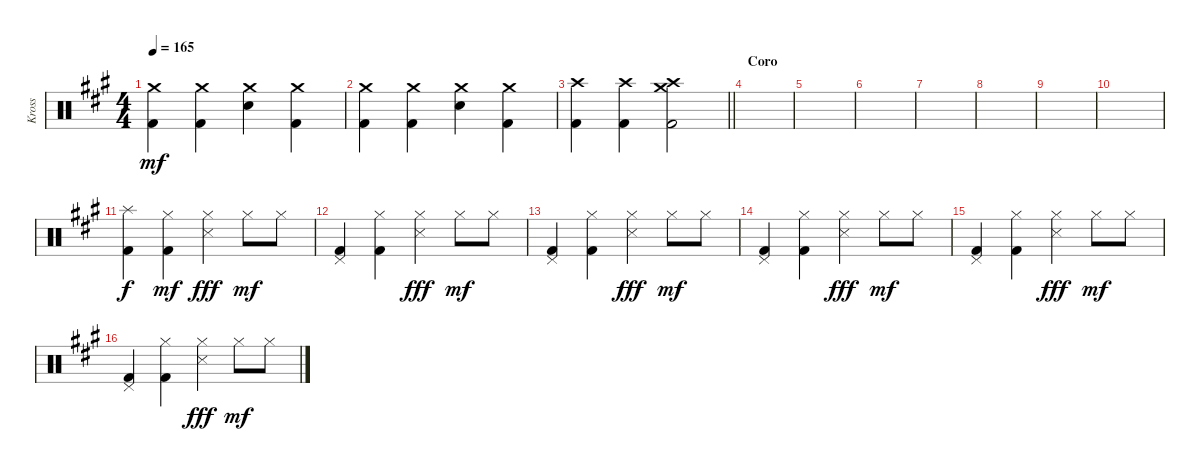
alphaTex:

\track ("Kross" "Kross") {instrument percussion}
\staff {score}
\articulation defaults
\ts (4 4)
\tempo 165
\clef neutral
\ks a
("Crash medium (hit)" "Kick (hit) 2").4{dy mf} ("Crash medium (hit)" "Kick (hit) 2").4 ("Crash medium (hit)" "Snare (hit) 2").4 ("Crash medium (hit)" "Kick (hit) 2").4 |
("Crash medium (hit)" "Kick (hit) 2").4 ("Crash medium (hit)" "Kick (hit) 2").4 ("Crash medium (hit)" "Snare (hit) 2").4 ("Crash medium (hit)" "Kick (hit) 2").4 |
\barLineRight lightlight
("Crash high (hit)" "Kick (hit) 2").4 ("Crash high (hit)" "Kick (hit) 2").4 ("Crash medium (hit)" "Crash high (hit)" "Kick (hit) 2").2 |
\section ("" "Coro")
|
|
|
|
|
|
|
("Splash (hit)" "Kick (hit) 2").4{dy f} ("Hi-Hat (closed)" "Kick (hit) 2").4{dy mf} ("Hi-Hat (closed)" "Metronome (hit)").4{dy fff} "Hi-Hat (closed)".8{dy mf} "Hi-Hat (closed)".8 |
("Pedal Hi-Hat (hit)" "Kick (hit) 2").4 ("Hi-Hat (closed)" "Kick (hit) 2").4 ("Hi-Hat (closed)" "Metronome (hit)").4{dy fff} "Hi-Hat (closed)".8{dy mf} "Hi-Hat (closed)".8 |
("Pedal Hi-Hat (hit)" "Kick (hit) 2").4 ("Hi-Hat (closed)" "Kick (hit) 2").4 ("Hi-Hat (closed)" "Metronome (hit)").4{dy fff} "Hi-Hat (closed)".8{dy mf} "Hi-Hat (closed)".8 |
("Pedal Hi-Hat (hit)" "Kick (hit) 2").4 ("Hi-Hat (closed)" "Kick (hit) 2").4 ("Hi-Hat (closed)" "Metronome (hit)").4{dy fff} "Hi-Hat (closed)".8{dy mf} "Hi-Hat (closed)".8 |
("Pedal Hi-Hat (hit)" "Kick (hit) 2").4 ("Hi-Hat (closed)" "Kick (hit) 2").4 ("Hi-Hat (closed)" "Metronome (hit)").4{dy fff} "Hi-Hat (closed)".8{dy mf} "Hi-Hat (closed)".8 |
("Pedal Hi-Hat (hit)" "Kick (hit) 2").4 ("Hi-Hat (closed)" "Kick (hit) 2").4 ("Hi-Hat (closed)" "Metronome (hit)").4{dy fff} "Hi-Hat (closed)".8{dy mf} "Hi-Hat (closed)".8
